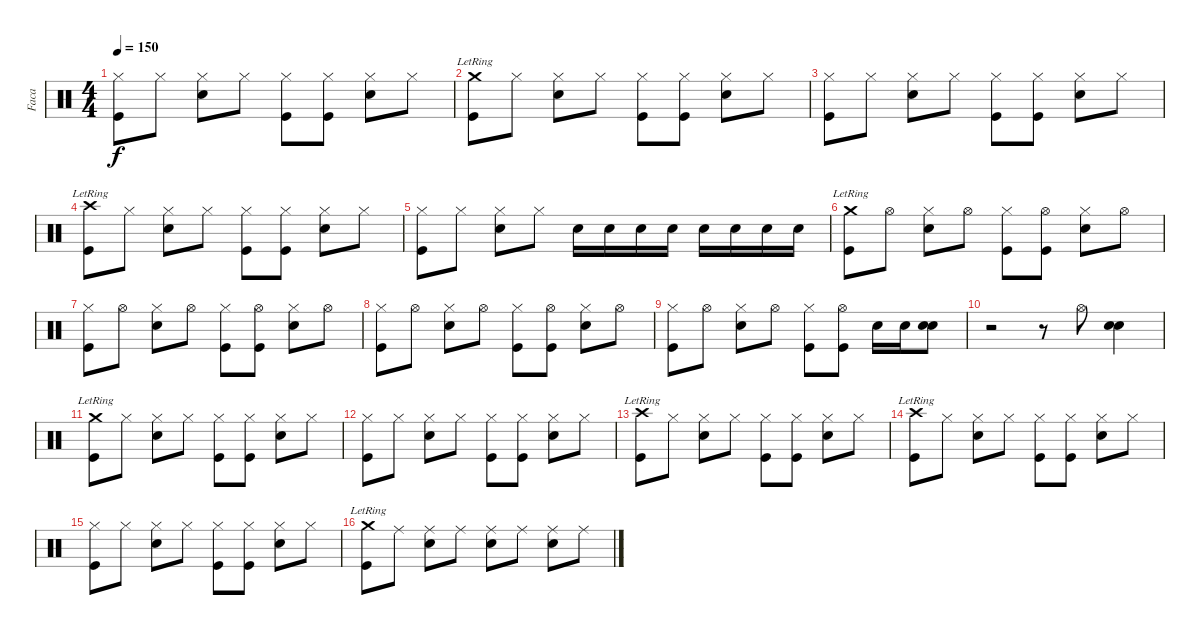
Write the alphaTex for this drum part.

\track ("Faca" "Faca") {instrument percussion}
\staff {score}
\articulation defaults
\ts (4 4)
\tempo 150
\clef neutral
\ks c
("Hi-Hat (closed)" "Kick (hit)").8{dy f} "Hi-Hat (closed)".8 ("Hi-Hat (closed)" "Snare (hit) 2").8 "Hi-Hat (closed)".8 ("Hi-Hat (closed)" "Kick (hit)").8 ("Hi-Hat (closed)" "Kick (hit)").8 ("Hi-Hat (closed)" "Snare (hit) 2").8 "Hi-Hat (closed)".8 |
("Crash medium (hit)"{lr} "Kick (hit)").8 "Hi-Hat (closed)".8 ("Hi-Hat (closed)" "Snare (hit) 2").8 "Hi-Hat (closed)".8 ("Hi-Hat (closed)" "Kick (hit)").8 ("Hi-Hat (closed)" "Kick (hit)").8 ("Hi-Hat (closed)" "Snare (hit) 2").8 "Hi-Hat (closed)".8 |
("Hi-Hat (closed)" "Kick (hit)").8 "Hi-Hat (closed)".8 ("Hi-Hat (closed)" "Snare (hit) 2").8 "Hi-Hat (closed)".8 ("Hi-Hat (closed)" "Kick (hit)").8 ("Hi-Hat (closed)" "Kick (hit)").8 ("Hi-Hat (closed)" "Snare (hit) 2").8 "Hi-Hat (closed)".8 |
("Crash high (hit)"{lr} "Kick (hit)").8 "Hi-Hat (closed)".8 ("Hi-Hat (closed)" "Snare (hit) 2").8 "Hi-Hat (closed)".8 ("Hi-Hat (closed)" "Kick (hit)").8 ("Hi-Hat (closed)" "Kick (hit)").8 ("Hi-Hat (closed)" "Snare (hit) 2").8 "Hi-Hat (closed)".8 |
("Hi-Hat (closed)" "Kick (hit)").8 "Hi-Hat (closed)".8 ("Hi-Hat (closed)" "Snare (hit) 2").8 "Hi-Hat (closed)".8 "Snare (hit) 2".16 "Snare (hit) 2".16 "Snare (hit) 2".16 "Snare (hit) 2".16 "Snare (hit) 2".16 "Snare (hit) 2".16 "Snare (hit) 2".16 "Snare (hit) 2".16 |
("Crash medium (hit)"{lr} "Kick (hit)").8 "Hi-Hat (open)".8 ("Hi-Hat (closed)" "Snare (hit) 2").8 "Hi-Hat (open)".8 ("Hi-Hat (closed)" "Kick (hit)").8 ("Hi-Hat (open)" "Kick (hit)").8 ("Hi-Hat (closed)" "Snare (hit) 2").8 "Hi-Hat (open)".8 |
("Hi-Hat (closed)" "Kick (hit)").8 "Hi-Hat (open)".8 ("Hi-Hat (closed)" "Snare (hit) 2").8 "Hi-Hat (open)".8 ("Hi-Hat (closed)" "Kick (hit)").8 ("Hi-Hat (open)" "Kick (hit)").8 ("Hi-Hat (closed)" "Snare (hit) 2").8 "Hi-Hat (open)".8 |
("Hi-Hat (closed)" "Kick (hit)").8 "Hi-Hat (open)".8 ("Hi-Hat (closed)" "Snare (hit) 2").8 "Hi-Hat (open)".8 ("Hi-Hat (closed)" "Kick (hit)").8 ("Hi-Hat (open)" "Kick (hit)").8 ("Hi-Hat (closed)" "Snare (hit) 2").8 "Hi-Hat (open)".8 |
("Hi-Hat (closed)" "Kick (hit)").8 "Hi-Hat (open)".8 ("Hi-Hat (closed)" "Snare (hit) 2").8 "Hi-Hat (open)".8 ("Hi-Hat (closed)" "Kick (hit)").8 ("Hi-Hat (open)" "Kick (hit)").8 "Snare (hit) 2".16 "Snare (hit) 2".16 ("Snare (hit) 2" "Snare (hit) 2").8{bd 480} |
r.2 r.8 "Hi-Hat (open)".8 ("Snare (hit) 2" "Snare (hit) 2").4{bd 480} |
("Crash medium (hit)"{lr} "Kick (hit)").8 "Hi-Hat (closed)".8 ("Hi-Hat (closed)" "Snare (hit) 2").8 "Hi-Hat (closed)".8 ("Hi-Hat (closed)" "Kick (hit)").8 ("Hi-Hat (closed)" "Kick (hit)").8 ("Hi-Hat (closed)" "Snare (hit) 2").8 "Hi-Hat (closed)".8 |
("Hi-Hat (closed)" "Kick (hit)").8 "Hi-Hat (closed)".8 ("Hi-Hat (closed)" "Snare (hit) 2").8 "Hi-Hat (closed)".8 ("Hi-Hat (closed)" "Kick (hit)").8 ("Hi-Hat (closed)" "Kick (hit)").8 ("Hi-Hat (closed)" "Snare (hit) 2").8 "Hi-Hat (closed)".8 |
("Crash high (hit)"{lr} "Kick (hit)").8 "Hi-Hat (closed)".8 ("Hi-Hat (closed)" "Snare (hit) 2").8 "Hi-Hat (closed)".8 ("Hi-Hat (closed)" "Kick (hit)").8 ("Hi-Hat (closed)" "Kick (hit)").8 ("Hi-Hat (closed)" "Snare (hit) 2").8 "Hi-Hat (closed)".8 |
("Crash high (hit)"{lr} "Kick (hit)").8 "Hi-Hat (closed)".8 ("Hi-Hat (closed)" "Snare (hit) 2").8 "Hi-Hat (closed)".8 ("Hi-Hat (closed)" "Kick (hit)").8 ("Hi-Hat (closed)" "Kick (hit)").8 ("Hi-Hat (closed)" "Snare (hit) 2").8 "Hi-Hat (closed)".8 |
("Hi-Hat (closed)" "Kick (hit)").8 "Hi-Hat (closed)".8 ("Hi-Hat (closed)" "Snare (hit) 2").8 "Hi-Hat (closed)".8 ("Hi-Hat (closed)" "Kick (hit)").8 ("Hi-Hat (closed)" "Kick (hit)").8 ("Hi-Hat (closed)" "Snare (hit) 2").8 "Hi-Hat (closed)".8 |
("Crash medium (hit)"{lr} "Kick (hit)").8 "Ride (middle)".8 ("Ride (middle)" "Snare (hit) 2").8 "Ride (middle)".8 ("Ride (middle)" "Snare (hit) 2").8 "Ride (middle)".8 ("Ride (middle)" "Snare (hit) 2").8 "Ride (middle)".8
